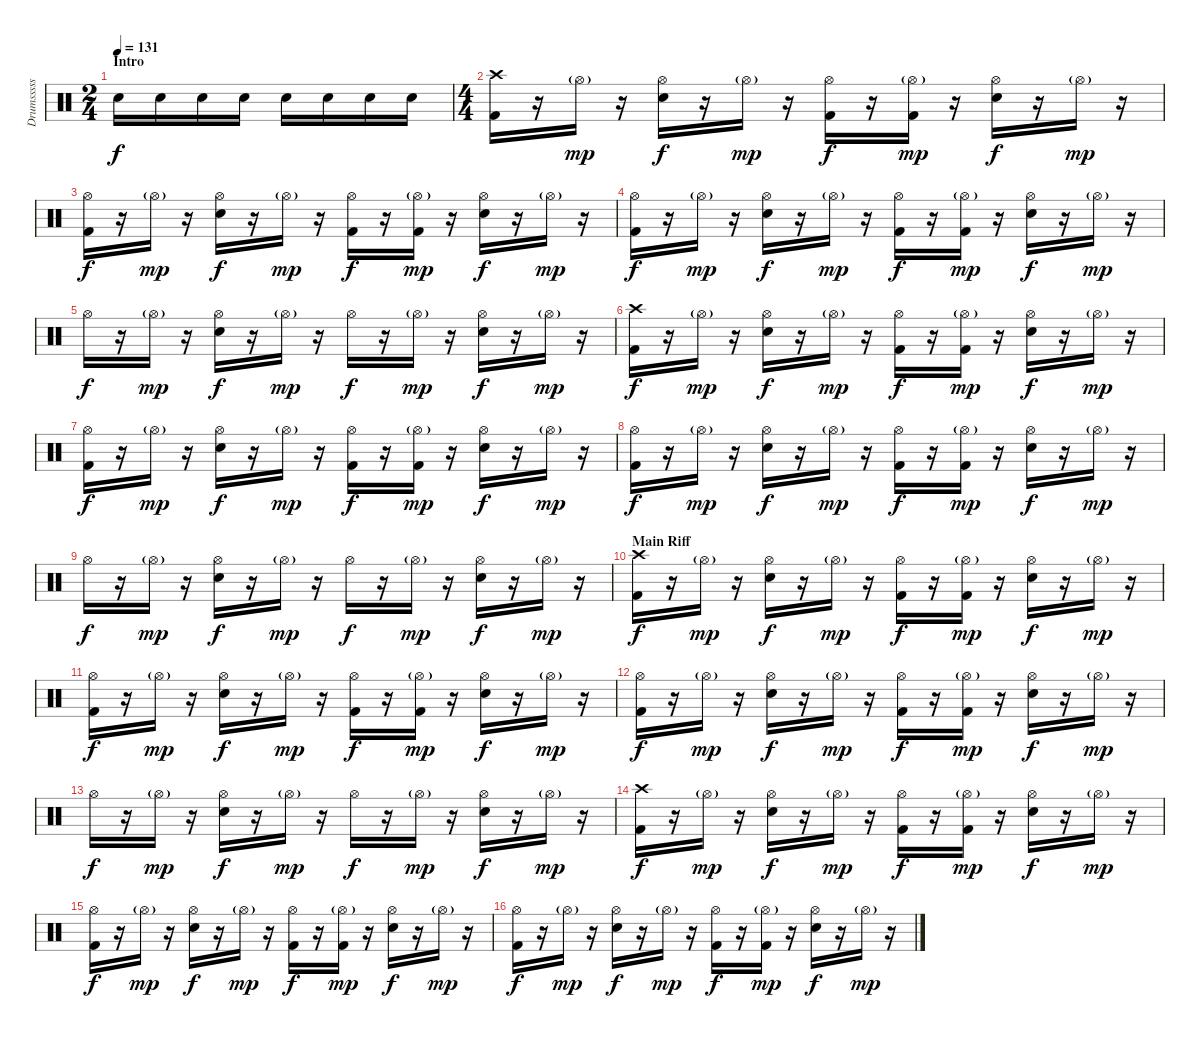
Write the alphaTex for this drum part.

\track ("Drumsssss" "Drumsssss") {instrument percussion}
\staff {score}
\articulation defaults
\ts (2 4)
\section ("" "Intro")
\tempo 131
\clef neutral
\ks c "Snare (hit) 2".16{dy f} "Snare (hit) 2".16 "Snare (hit) 2".16 "Snare (hit) 2".16 "Snare (hit) 2".16 "Snare (hit) 2".16 "Snare (hit) 2".16 "Snare (hit) 2".16
|
\ts (4 4)
("Crash high (hit)" "Kick (hit) 2").16 r.16 "Hi-Hat (open)"{g}.16{dy mp} r.16 ("Hi-Hat (open)" "Snare (hit) 2").16{dy f} r.16 "Hi-Hat (open)"{g}.16{dy mp} r.16 ("Hi-Hat (open)" "Kick (hit) 2").16{dy f} r.16 ("Hi-Hat (open)"{g} "Kick (hit) 2").16{dy mp} r.16 ("Hi-Hat (open)" "Snare (hit) 2").16{dy f} r.16 "Hi-Hat (open)"{g}.16{dy mp} r.16 |
("Hi-Hat (open)" "Kick (hit) 2").16{dy f} r.16 "Hi-Hat (open)"{g}.16{dy mp} r.16 ("Hi-Hat (open)" "Snare (hit) 2").16{dy f} r.16 "Hi-Hat (open)"{g}.16{dy mp} r.16 ("Hi-Hat (open)" "Kick (hit) 2").16{dy f} r.16 ("Hi-Hat (open)"{g} "Kick (hit) 2").16{dy mp} r.16 ("Hi-Hat (open)" "Snare (hit) 2").16{dy f} r.16 "Hi-Hat (open)"{g}.16{dy mp} r.16 |
("Hi-Hat (open)" "Kick (hit) 2").16{dy f} r.16 "Hi-Hat (open)"{g}.16{dy mp} r.16 ("Hi-Hat (open)" "Snare (hit) 2").16{dy f} r.16 "Hi-Hat (open)"{g}.16{dy mp} r.16 ("Hi-Hat (open)" "Kick (hit) 2").16{dy f} r.16 ("Hi-Hat (open)"{g} "Kick (hit) 2").16{dy mp} r.16 ("Hi-Hat (open)" "Snare (hit) 2").16{dy f} r.16 "Hi-Hat (open)"{g}.16{dy mp} r.16 |
"Hi-Hat (open)".16{dy f} r.16 "Hi-Hat (open)"{g}.16{dy mp} r.16 ("Hi-Hat (open)" "Snare (hit) 2").16{dy f} r.16 "Hi-Hat (open)"{g}.16{dy mp} r.16 "Hi-Hat (open)".16{dy f} r.16 "Hi-Hat (open)"{g}.16{dy mp} r.16 ("Hi-Hat (open)" "Snare (hit) 2").16{dy f} r.16 "Hi-Hat (open)"{g}.16{dy mp} r.16 |
("Crash high (hit)" "Kick (hit) 2").16{dy f} r.16 "Hi-Hat (open)"{g}.16{dy mp} r.16 ("Hi-Hat (open)" "Snare (hit) 2").16{dy f} r.16 "Hi-Hat (open)"{g}.16{dy mp} r.16 ("Hi-Hat (open)" "Kick (hit) 2").16{dy f} r.16 ("Hi-Hat (open)"{g} "Kick (hit) 2").16{dy mp} r.16 ("Hi-Hat (open)" "Snare (hit) 2").16{dy f} r.16 "Hi-Hat (open)"{g}.16{dy mp} r.16 |
("Hi-Hat (open)" "Kick (hit) 2").16{dy f} r.16 "Hi-Hat (open)"{g}.16{dy mp} r.16 ("Hi-Hat (open)" "Snare (hit) 2").16{dy f} r.16 "Hi-Hat (open)"{g}.16{dy mp} r.16 ("Hi-Hat (open)" "Kick (hit) 2").16{dy f} r.16 ("Hi-Hat (open)"{g} "Kick (hit) 2").16{dy mp} r.16 ("Hi-Hat (open)" "Snare (hit) 2").16{dy f} r.16 "Hi-Hat (open)"{g}.16{dy mp} r.16 |
("Hi-Hat (open)" "Kick (hit) 2").16{dy f} r.16 "Hi-Hat (open)"{g}.16{dy mp} r.16 ("Hi-Hat (open)" "Snare (hit) 2").16{dy f} r.16 "Hi-Hat (open)"{g}.16{dy mp} r.16 ("Hi-Hat (open)" "Kick (hit) 2").16{dy f} r.16 ("Hi-Hat (open)"{g} "Kick (hit) 2").16{dy mp} r.16 ("Hi-Hat (open)" "Snare (hit) 2").16{dy f} r.16 "Hi-Hat (open)"{g}.16{dy mp} r.16 |
"Hi-Hat (open)".16{dy f} r.16 "Hi-Hat (open)"{g}.16{dy mp} r.16 ("Hi-Hat (open)" "Snare (hit) 2").16{dy f} r.16 "Hi-Hat (open)"{g}.16{dy mp} r.16 "Hi-Hat (open)".16{dy f} r.16 "Hi-Hat (open)"{g}.16{dy mp} r.16 ("Hi-Hat (open)" "Snare (hit) 2").16{dy f} r.16 "Hi-Hat (open)"{g}.16{dy mp} r.16 |
\section ("" "Main Riff")
("Crash high (hit)" "Kick (hit) 2").16{dy f} r.16 "Hi-Hat (open)"{g}.16{dy mp} r.16 ("Hi-Hat (open)" "Snare (hit) 2").16{dy f} r.16 "Hi-Hat (open)"{g}.16{dy mp} r.16 ("Hi-Hat (open)" "Kick (hit) 2").16{dy f} r.16 ("Hi-Hat (open)"{g} "Kick (hit) 2").16{dy mp} r.16 ("Hi-Hat (open)" "Snare (hit) 2").16{dy f} r.16 "Hi-Hat (open)"{g}.16{dy mp} r.16 |
("Hi-Hat (open)" "Kick (hit) 2").16{dy f} r.16 "Hi-Hat (open)"{g}.16{dy mp} r.16 ("Hi-Hat (open)" "Snare (hit) 2").16{dy f} r.16 "Hi-Hat (open)"{g}.16{dy mp} r.16 ("Hi-Hat (open)" "Kick (hit) 2").16{dy f} r.16 ("Hi-Hat (open)"{g} "Kick (hit) 2").16{dy mp} r.16 ("Hi-Hat (open)" "Snare (hit) 2").16{dy f} r.16 "Hi-Hat (open)"{g}.16{dy mp} r.16 |
("Hi-Hat (open)" "Kick (hit) 2").16{dy f} r.16 "Hi-Hat (open)"{g}.16{dy mp} r.16 ("Hi-Hat (open)" "Snare (hit) 2").16{dy f} r.16 "Hi-Hat (open)"{g}.16{dy mp} r.16 ("Hi-Hat (open)" "Kick (hit) 2").16{dy f} r.16 ("Hi-Hat (open)"{g} "Kick (hit) 2").16{dy mp} r.16 ("Hi-Hat (open)" "Snare (hit) 2").16{dy f} r.16 "Hi-Hat (open)"{g}.16{dy mp} r.16 |
"Hi-Hat (open)".16{dy f} r.16 "Hi-Hat (open)"{g}.16{dy mp} r.16 ("Hi-Hat (open)" "Snare (hit) 2").16{dy f} r.16 "Hi-Hat (open)"{g}.16{dy mp} r.16 "Hi-Hat (open)".16{dy f} r.16 "Hi-Hat (open)"{g}.16{dy mp} r.16 ("Hi-Hat (open)" "Snare (hit) 2").16{dy f} r.16 "Hi-Hat (open)"{g}.16{dy mp} r.16 |
("Crash high (hit)" "Kick (hit) 2").16{dy f} r.16 "Hi-Hat (open)"{g}.16{dy mp} r.16 ("Hi-Hat (open)" "Snare (hit) 2").16{dy f} r.16 "Hi-Hat (open)"{g}.16{dy mp} r.16 ("Hi-Hat (open)" "Kick (hit) 2").16{dy f} r.16 ("Hi-Hat (open)"{g} "Kick (hit) 2").16{dy mp} r.16 ("Hi-Hat (open)" "Snare (hit) 2").16{dy f} r.16 "Hi-Hat (open)"{g}.16{dy mp} r.16 |
("Hi-Hat (open)" "Kick (hit) 2").16{dy f} r.16 "Hi-Hat (open)"{g}.16{dy mp} r.16 ("Hi-Hat (open)" "Snare (hit) 2").16{dy f} r.16 "Hi-Hat (open)"{g}.16{dy mp} r.16 ("Hi-Hat (open)" "Kick (hit) 2").16{dy f} r.16 ("Hi-Hat (open)"{g} "Kick (hit) 2").16{dy mp} r.16 ("Hi-Hat (open)" "Snare (hit) 2").16{dy f} r.16 "Hi-Hat (open)"{g}.16{dy mp} r.16 |
("Hi-Hat (open)" "Kick (hit) 2").16{dy f} r.16 "Hi-Hat (open)"{g}.16{dy mp} r.16 ("Hi-Hat (open)" "Snare (hit) 2").16{dy f} r.16 "Hi-Hat (open)"{g}.16{dy mp} r.16 ("Hi-Hat (open)" "Kick (hit) 2").16{dy f} r.16 ("Hi-Hat (open)"{g} "Kick (hit) 2").16{dy mp} r.16 ("Hi-Hat (open)" "Snare (hit) 2").16{dy f} r.16 "Hi-Hat (open)"{g}.16{dy mp} r.16
